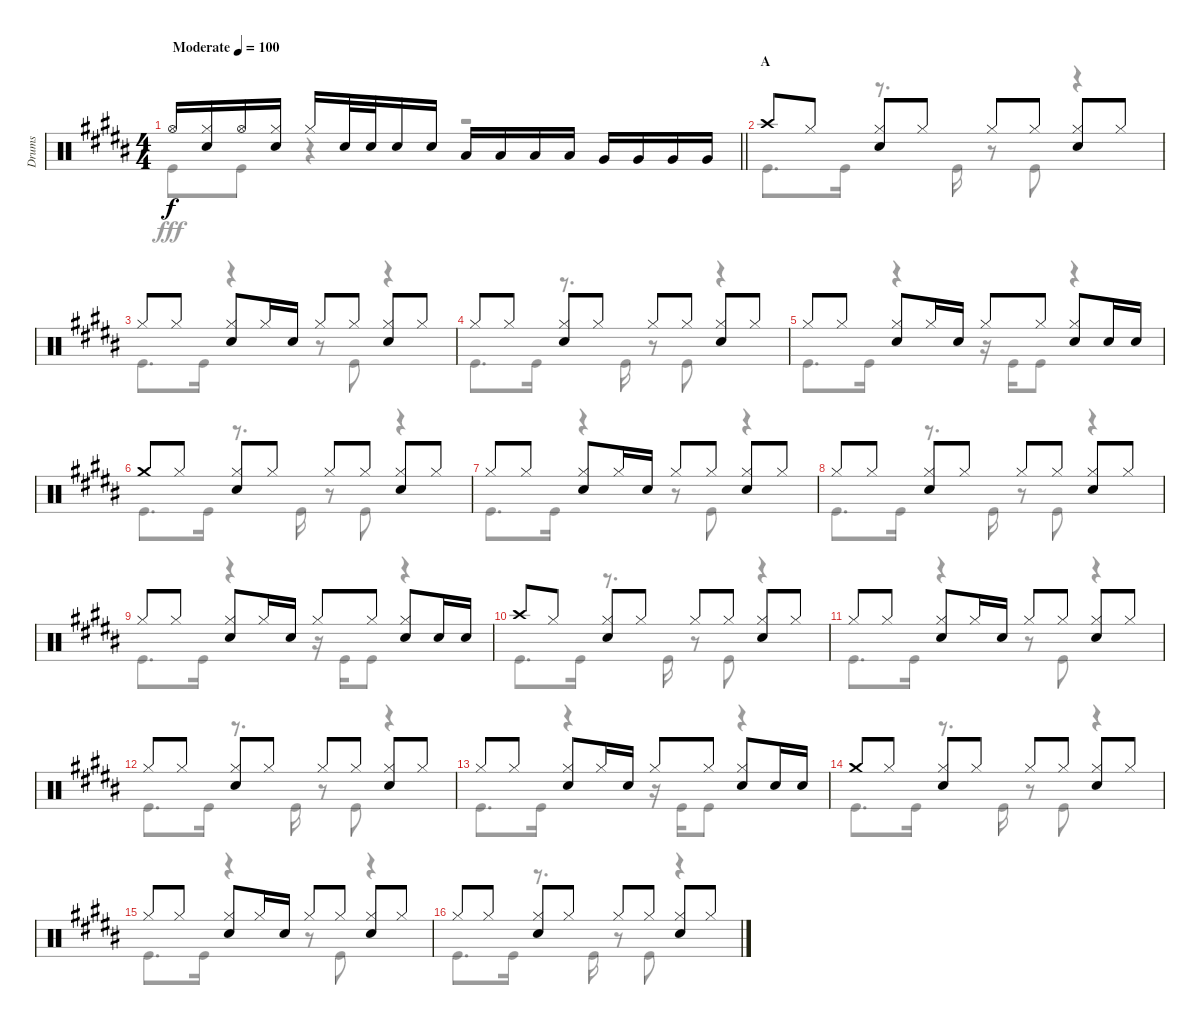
\track ("Drums" "Drums") {instrument percussion}
\staff {score}
\articulation defaults
\voice
\ts (4 4)
\tempo (100 "Moderate")
\clef neutral
\barLineRight lightlight
\ks b "Hi-Hat (open)".16{dy f}
("Hi-Hat (closed)" "Snare (hit) 2").16 "Hi-Hat (open)".16 ("Hi-Hat (closed)" "Snare (hit) 2").16 "Hi-Hat (closed)".16 "Snare (hit) 2".32 "Snare (hit) 2".32 "Snare (hit) 2".16 "Snare (hit) 2".16 "Low Tom (hit)".16 "Low Tom (hit)".16 "Low Tom (hit)".16 "Low Tom (hit)".16 "Very Low Tom (hit)".16 "Very Low Tom (hit)".16 "Very Low Tom (hit)".16 "Very Low Tom (hit)".16 |
\section ("" "A")
"Crash high (hit)".8 "Hi-Hat (closed)".8 ("Hi-Hat (closed)" "Snare (hit) 2").8 "Hi-Hat (closed)".8 "Hi-Hat (closed)".8 "Hi-Hat (closed)".8 ("Hi-Hat (closed)" "Snare (hit) 2").8 "Hi-Hat (closed)".8 |
"Hi-Hat (closed)".8 "Hi-Hat (closed)".8 ("Hi-Hat (closed)" "Snare (hit) 2").8 "Hi-Hat (closed)".16 "Snare (hit) 2".16 "Hi-Hat (closed)".8 "Hi-Hat (closed)".8 ("Hi-Hat (closed)" "Snare (hit) 2").8 "Hi-Hat (closed)".8 |
"Hi-Hat (closed)".8 "Hi-Hat (closed)".8 ("Hi-Hat (closed)" "Snare (hit) 2").8 "Hi-Hat (closed)".8 "Hi-Hat (closed)".8 "Hi-Hat (closed)".8 ("Hi-Hat (closed)" "Snare (hit) 2").8 "Hi-Hat (closed)".8 |
"Hi-Hat (closed)".8 "Hi-Hat (closed)".8 ("Hi-Hat (closed)" "Snare (hit) 2").8 "Hi-Hat (closed)".16 "Snare (hit) 2".16 "Hi-Hat (closed)".8 "Hi-Hat (closed)".8 ("Hi-Hat (closed)" "Snare (hit) 2").8 "Snare (hit) 2".16 "Snare (hit) 2".16 |
"Crash medium (hit)".8 "Hi-Hat (closed)".8 ("Hi-Hat (closed)" "Snare (hit) 2").8 "Hi-Hat (closed)".8 "Hi-Hat (closed)".8 "Hi-Hat (closed)".8 ("Hi-Hat (closed)" "Snare (hit) 2").8 "Hi-Hat (closed)".8 |
"Hi-Hat (closed)".8 "Hi-Hat (closed)".8 ("Hi-Hat (closed)" "Snare (hit) 2").8 "Hi-Hat (closed)".16 "Snare (hit) 2".16 "Hi-Hat (closed)".8 "Hi-Hat (closed)".8 ("Hi-Hat (closed)" "Snare (hit) 2").8 "Hi-Hat (closed)".8 |
"Hi-Hat (closed)".8 "Hi-Hat (closed)".8 ("Hi-Hat (closed)" "Snare (hit) 2").8 "Hi-Hat (closed)".8 "Hi-Hat (closed)".8 "Hi-Hat (closed)".8 ("Hi-Hat (closed)" "Snare (hit) 2").8 "Hi-Hat (closed)".8 |
"Hi-Hat (closed)".8 "Hi-Hat (closed)".8 ("Hi-Hat (closed)" "Snare (hit) 2").8 "Hi-Hat (closed)".16 "Snare (hit) 2".16 "Hi-Hat (closed)".8 "Hi-Hat (closed)".8 ("Hi-Hat (closed)" "Snare (hit) 2").8 "Snare (hit) 2".16 "Snare (hit) 2".16 |
"Crash high (hit)".8 "Hi-Hat (closed)".8 ("Hi-Hat (closed)" "Snare (hit) 2").8 "Hi-Hat (closed)".8 "Hi-Hat (closed)".8 "Hi-Hat (closed)".8 ("Hi-Hat (closed)" "Snare (hit) 2").8 "Hi-Hat (closed)".8 |
"Hi-Hat (closed)".8 "Hi-Hat (closed)".8 ("Hi-Hat (closed)" "Snare (hit) 2").8 "Hi-Hat (closed)".16 "Snare (hit) 2".16 "Hi-Hat (closed)".8 "Hi-Hat (closed)".8 ("Hi-Hat (closed)" "Snare (hit) 2").8 "Hi-Hat (closed)".8 |
"Hi-Hat (closed)".8 "Hi-Hat (closed)".8 ("Hi-Hat (closed)" "Snare (hit) 2").8 "Hi-Hat (closed)".8 "Hi-Hat (closed)".8 "Hi-Hat (closed)".8 ("Hi-Hat (closed)" "Snare (hit) 2").8 "Hi-Hat (closed)".8 |
"Hi-Hat (closed)".8 "Hi-Hat (closed)".8 ("Hi-Hat (closed)" "Snare (hit) 2").8 "Hi-Hat (closed)".16 "Snare (hit) 2".16 "Hi-Hat (closed)".8 "Hi-Hat (closed)".8 ("Hi-Hat (closed)" "Snare (hit) 2").8 "Snare (hit) 2".16 "Snare (hit) 2".16 |
"Crash medium (hit)".8 "Hi-Hat (closed)".8 ("Hi-Hat (closed)" "Snare (hit) 2").8 "Hi-Hat (closed)".8 "Hi-Hat (closed)".8 "Hi-Hat (closed)".8 ("Hi-Hat (closed)" "Snare (hit) 2").8 "Hi-Hat (closed)".8 |
"Hi-Hat (closed)".8 "Hi-Hat (closed)".8 ("Hi-Hat (closed)" "Snare (hit) 2").8 "Hi-Hat (closed)".16 "Snare (hit) 2".16 "Hi-Hat (closed)".8 "Hi-Hat (closed)".8 ("Hi-Hat (closed)" "Snare (hit) 2").8 "Hi-Hat (closed)".8 |
"Hi-Hat (closed)".8 "Hi-Hat (closed)".8 ("Hi-Hat (closed)" "Snare (hit) 2").8 "Hi-Hat (closed)".8 "Hi-Hat (closed)".8 "Hi-Hat (closed)".8 ("Hi-Hat (closed)" "Snare (hit) 2").8 "Hi-Hat (closed)".8
\voice
\clef neutral
\ottava regular
\simile none
\barLineRight lightlight
\ks b "Kick (hit)".8{dy fff} "Kick (hit)".8
r.4 r.2 |
"Kick (hit)".8{d} "Kick (hit)".16 r.8{d} "Kick (hit)".16 r.8 "Kick (hit)".8 r.4 |
"Kick (hit)".8{d} "Kick (hit)".16 r.4 r.8 "Kick (hit)".8 r.4 |
"Kick (hit)".8{d} "Kick (hit)".16 r.8{d} "Kick (hit)".16 r.8 "Kick (hit)".8 r.4 |
"Kick (hit)".8{d} "Kick (hit)".16 r.4 r.16 "Kick (hit)".16 "Kick (hit)".8 r.4 |
"Kick (hit)".8{d} "Kick (hit)".16 r.8{d} "Kick (hit)".16 r.8 "Kick (hit)".8 r.4 |
"Kick (hit)".8{d} "Kick (hit)".16 r.4 r.8 "Kick (hit)".8 r.4 |
"Kick (hit)".8{d} "Kick (hit)".16 r.8{d} "Kick (hit)".16 r.8 "Kick (hit)".8 r.4 |
"Kick (hit)".8{d} "Kick (hit)".16 r.4 r.16 "Kick (hit)".16 "Kick (hit)".8 r.4 |
"Kick (hit)".8{d} "Kick (hit)".16 r.8{d} "Kick (hit)".16 r.8 "Kick (hit)".8 r.4 |
"Kick (hit)".8{d} "Kick (hit)".16 r.4 r.8 "Kick (hit)".8 r.4 |
"Kick (hit)".8{d} "Kick (hit)".16 r.8{d} "Kick (hit)".16 r.8 "Kick (hit)".8 r.4 |
"Kick (hit)".8{d} "Kick (hit)".16 r.4 r.16 "Kick (hit)".16 "Kick (hit)".8 r.4 |
"Kick (hit)".8{d} "Kick (hit)".16 r.8{d} "Kick (hit)".16 r.8 "Kick (hit)".8 r.4 |
"Kick (hit)".8{d} "Kick (hit)".16 r.4 r.8 "Kick (hit)".8 r.4 |
"Kick (hit)".8{d} "Kick (hit)".16 r.8{d} "Kick (hit)".16 r.8 "Kick (hit)".8 r.4
